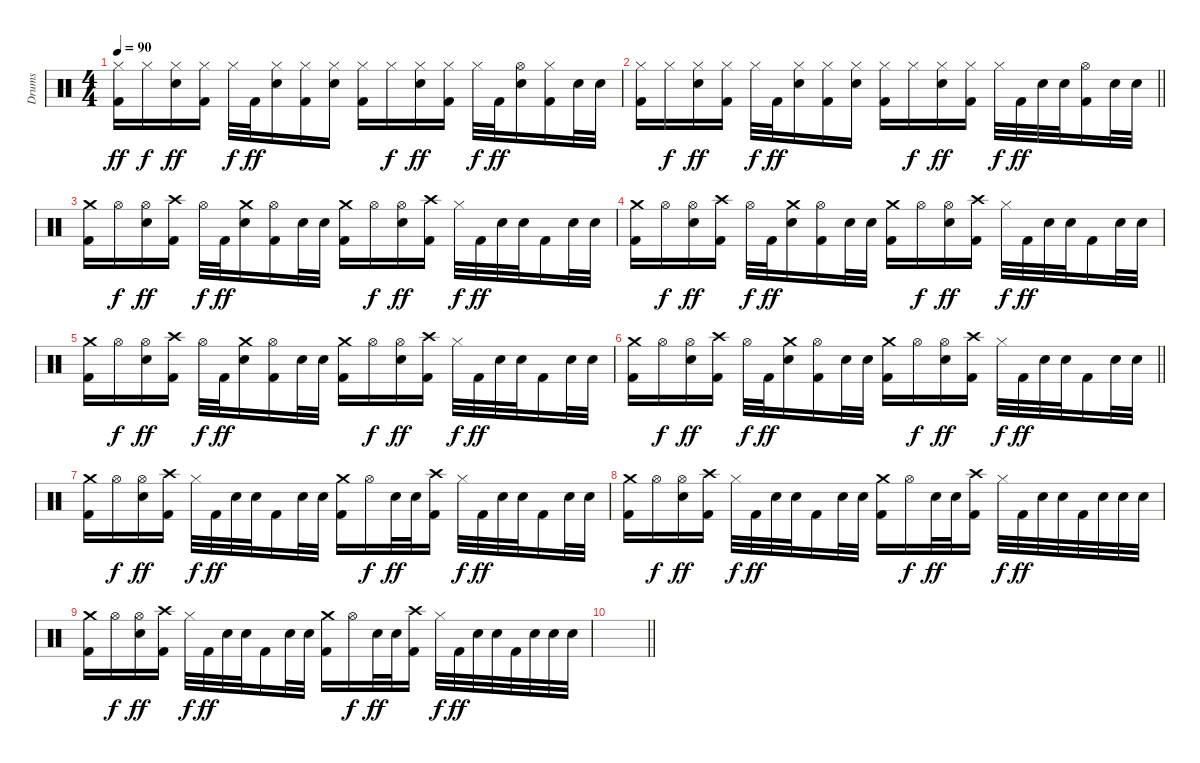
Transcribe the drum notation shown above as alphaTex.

\track ("Drums" "Drums") {instrument percussion}
\staff {score}
\articulation defaults
\ts (4 4)
\tempo 90
\clef neutral
\ks c
("Hi-Hat (closed)" "Kick (hit) 2").16{dy ff} "Hi-Hat (closed)".16{dy f} ("Hi-Hat (closed)" "Snare (hit) 2").16{dy ff} ("Hi-Hat (closed)" "Kick (hit) 2").16 "Hi-Hat (closed)".32{dy f} "Kick (hit) 2".32{dy ff} ("Hi-Hat (closed)" "Snare (hit) 2").16 ("Hi-Hat (closed)" "Kick (hit) 2").16 ("Hi-Hat (closed)" "Snare (hit) 2").16 ("Hi-Hat (closed)" "Kick (hit) 2").16 "Hi-Hat (closed)".16{dy f} ("Hi-Hat (closed)" "Snare (hit) 2").16{dy ff} ("Hi-Hat (closed)" "Kick (hit) 2").16 "Hi-Hat (closed)".32{dy f} "Kick (hit) 2".32{dy ff} ("Hi-Hat (open)" "Snare (hit) 2").16 ("Hi-Hat (closed)" "Kick (hit) 2").16 "Snare (hit) 2".32 "Snare (hit) 2".32 |
\barLineRight lightlight
("Hi-Hat (closed)" "Kick (hit) 2").16 "Hi-Hat (closed)".16{dy f} ("Hi-Hat (closed)" "Snare (hit) 2").16{dy ff} ("Hi-Hat (closed)" "Kick (hit) 2").16 "Hi-Hat (closed)".32{dy f} "Kick (hit) 2".32{dy ff} ("Hi-Hat (closed)" "Snare (hit) 2").16 ("Hi-Hat (closed)" "Kick (hit) 2").16 ("Hi-Hat (closed)" "Snare (hit) 2").16 ("Hi-Hat (closed)" "Kick (hit) 2").16 "Hi-Hat (closed)".16{dy f} ("Hi-Hat (closed)" "Snare (hit) 2").16{dy ff} ("Hi-Hat (closed)" "Kick (hit) 2").16 "Hi-Hat (closed)".32{dy f} "Kick (hit) 2".32{dy ff} "Snare (hit) 2".32 "Snare (hit) 2".32 ("Hi-Hat (open)" "Kick (hit) 2").16 "Snare (hit) 2".32 "Snare (hit) 2".32 |
\section ("" "")
("Crash medium (hit)" "Kick (hit) 2").16 "Hi-Hat (open)".16{dy f} ("Hi-Hat (open)" "Snare (hit) 2").16{dy ff} ("Crash high (hit)" "Kick (hit) 2").16 "Hi-Hat (open)".32{dy f} "Kick (hit) 2".32{dy ff} ("Crash medium (hit)" "Snare (hit) 2").16 ("Hi-Hat (open)" "Kick (hit) 2").16 "Snare (hit) 2".32 "Snare (hit) 2".32 ("Crash medium (hit)" "Kick (hit) 2").16 "Hi-Hat (open)".16{dy f} ("Hi-Hat (open)" "Snare (hit) 2").16{dy ff} ("Crash high (hit)" "Kick (hit) 2").16 "Hi-Hat (closed)".32{dy f} "Kick (hit) 2".32{dy ff} "Snare (hit) 2".32 "Snare (hit) 2".32 "Kick (hit) 2".16 "Snare (hit) 2".32 "Snare (hit) 2".32 |
("Crash medium (hit)" "Kick (hit) 2").16 "Hi-Hat (open)".16{dy f} ("Hi-Hat (open)" "Snare (hit) 2").16{dy ff} ("Crash high (hit)" "Kick (hit) 2").16 "Hi-Hat (open)".32{dy f} "Kick (hit) 2".32{dy ff} ("Crash medium (hit)" "Snare (hit) 2").16 ("Hi-Hat (open)" "Kick (hit) 2").16 "Snare (hit) 2".32 "Snare (hit) 2".32 ("Crash medium (hit)" "Kick (hit) 2").16 "Hi-Hat (open)".16{dy f} ("Hi-Hat (open)" "Snare (hit) 2").16{dy ff} ("Crash high (hit)" "Kick (hit) 2").16 "Hi-Hat (closed)".32{dy f} "Kick (hit) 2".32{dy ff} "Snare (hit) 2".32 "Snare (hit) 2".32 "Kick (hit) 2".16 "Snare (hit) 2".32 "Snare (hit) 2".32 |
("Crash medium (hit)" "Kick (hit) 2").16 "Hi-Hat (open)".16{dy f} ("Hi-Hat (open)" "Snare (hit) 2").16{dy ff} ("Crash high (hit)" "Kick (hit) 2").16 "Hi-Hat (open)".32{dy f} "Kick (hit) 2".32{dy ff} ("Crash medium (hit)" "Snare (hit) 2").16 ("Hi-Hat (open)" "Kick (hit) 2").16 "Snare (hit) 2".32 "Snare (hit) 2".32 ("Crash medium (hit)" "Kick (hit) 2").16 "Hi-Hat (open)".16{dy f} ("Hi-Hat (open)" "Snare (hit) 2").16{dy ff} ("Crash high (hit)" "Kick (hit) 2").16 "Hi-Hat (closed)".32{dy f} "Kick (hit) 2".32{dy ff} "Snare (hit) 2".32 "Snare (hit) 2".32 "Kick (hit) 2".16 "Snare (hit) 2".32 "Snare (hit) 2".32 |
\barLineRight lightlight
("Crash medium (hit)" "Kick (hit) 2").16 "Hi-Hat (open)".16{dy f} ("Hi-Hat (open)" "Snare (hit) 2").16{dy ff} ("Crash high (hit)" "Kick (hit) 2").16 "Hi-Hat (open)".32{dy f} "Kick (hit) 2".32{dy ff} ("Crash medium (hit)" "Snare (hit) 2").16 ("Hi-Hat (open)" "Kick (hit) 2").16 "Snare (hit) 2".32 "Snare (hit) 2".32 ("Crash medium (hit)" "Kick (hit) 2").16 "Hi-Hat (open)".16{dy f} ("Hi-Hat (open)" "Snare (hit) 2").16{dy ff} ("Crash high (hit)" "Kick (hit) 2").16 "Hi-Hat (closed)".32{dy f} "Kick (hit) 2".32{dy ff} "Snare (hit) 2".32 "Snare (hit) 2".32 "Kick (hit) 2".16 "Snare (hit) 2".32 "Snare (hit) 2".32 |
("Crash medium (hit)" "Kick (hit) 2").16 "Hi-Hat (open)".16{dy f} ("Hi-Hat (open)" "Snare (hit) 2").16{dy ff} ("Crash high (hit)" "Kick (hit) 2").16 "Hi-Hat (closed)".32{dy f} "Kick (hit) 2".32{dy ff} "Snare (hit) 2".32 "Snare (hit) 2".32 "Kick (hit) 2".16 "Snare (hit) 2".32 "Snare (hit) 2".32 ("Crash medium (hit)" "Kick (hit) 2").16 "Hi-Hat (open)".16{dy f} "Snare (hit) 2".32{dy ff} "Snare (hit) 2".32 ("Crash high (hit)" "Kick (hit) 2").16 "Hi-Hat (closed)".32{dy f} "Kick (hit) 2".32{dy ff} "Snare (hit) 2".32 "Snare (hit) 2".32 "Kick (hit) 2".16 "Snare (hit) 2".32 "Snare (hit) 2".32 |
("Crash medium (hit)" "Kick (hit) 2").16 "Hi-Hat (open)".16{dy f} ("Hi-Hat (open)" "Snare (hit) 2").16{dy ff} ("Crash high (hit)" "Kick (hit) 2").16 "Hi-Hat (closed)".32{dy f} "Kick (hit) 2".32{dy ff} "Snare (hit) 2".32 "Snare (hit) 2".32 "Kick (hit) 2".16 "Snare (hit) 2".32 "Snare (hit) 2".32 ("Crash medium (hit)" "Kick (hit) 2").16 "Hi-Hat (open)".16{dy f} "Snare (hit) 2".32{dy ff} "Snare (hit) 2".32 ("Crash high (hit)" "Kick (hit) 2").16 "Hi-Hat (closed)".32{dy f} "Kick (hit) 2".32{dy ff} "Snare (hit) 2".32 "Snare (hit) 2".32 "Kick (hit) 2".32 "Snare (hit) 2".32 "Snare (hit) 2".32 "Snare (hit) 2".32 |
("Crash medium (hit)" "Kick (hit) 2").16 "Hi-Hat (open)".16{dy f} ("Hi-Hat (open)" "Snare (hit) 2").16{dy ff} ("Crash high (hit)" "Kick (hit) 2").16 "Hi-Hat (closed)".32{dy f} "Kick (hit) 2".32{dy ff} "Snare (hit) 2".32 "Snare (hit) 2".32 "Kick (hit) 2".16 "Snare (hit) 2".32 "Snare (hit) 2".32 ("Crash medium (hit)" "Kick (hit) 2").16 "Hi-Hat (open)".16{dy f} "Snare (hit) 2".32{dy ff} "Snare (hit) 2".32 ("Crash high (hit)" "Kick (hit) 2").16 "Hi-Hat (closed)".32{dy f} "Kick (hit) 2".32{dy ff} "Snare (hit) 2".32 "Snare (hit) 2".32 "Kick (hit) 2".32 "Snare (hit) 2".32 "Snare (hit) 2".32 "Snare (hit) 2".32 |
\barLineRight lightlight
